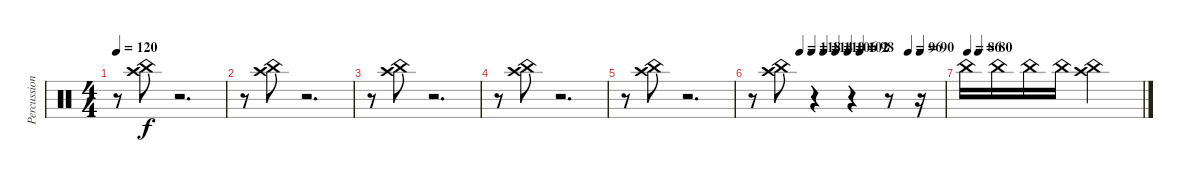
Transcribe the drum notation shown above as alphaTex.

\track ("Percussion" "Percussion") {instrument percussion}
\staff {score}
\articulation defaults
\ts (4 4)
\tempo 120
\clef neutral
\ks c
r.8{dy f} ("China (hit)" "Crash high (hit)").8 r.2{d} |
r.8 ("China (hit)" "Crash high (hit)").8 r.2{d} |
r.8 ("China (hit)" "Crash high (hit)").8 r.2{d} |
r.8 ("China (hit)" "Crash high (hit)").8 r.2{d} |
r.8 ("China (hit)" "Crash high (hit)").8 r.2{d} |
\tempo (118 0.25)
\tempo (114 0.3125)
\tempo (110 0.375)
\tempo (106 0.4375)
\tempo (102 0.5)
\tempo (98 0.5625)
\tempo (96 0.8125)
\tempo (90 0.875)
r.8 ("China (hit)" "Crash high (hit)").8 r.4 r.4 r.8 r.16{volume 0} |
\tempo 86
\tempo (80 0.0625)
"China (hit)".16{volume 9} "China (hit)".16 "China (hit)".16 "China (hit)".16 ("China (hit)" "Crash high (hit)").4
